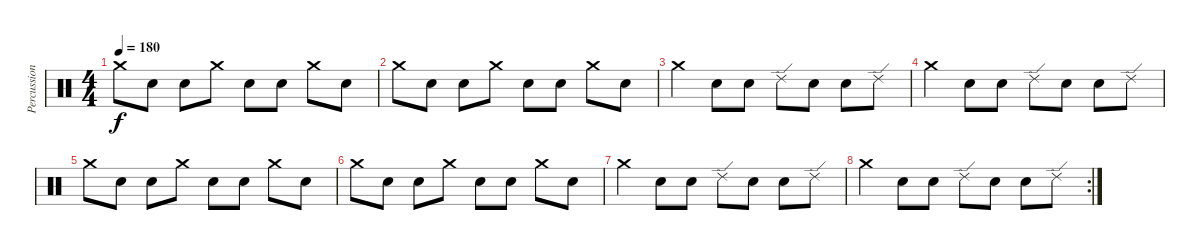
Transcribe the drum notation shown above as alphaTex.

\track ("Percussion" "Percussion") {instrument percussion}
\staff {score}
\articulation defaults
\ts (4 4)
\tempo 180
\clef neutral
\ks c "Crash medium (hit)".8{dy f} "Snare (hit) 2".8 "Snare (hit) 2".8 "Crash medium (hit)".8 "Snare (hit) 2".8 "Snare (hit) 2".8 "Crash medium (hit)".8 "Snare (hit) 2".8
|
"Crash medium (hit)".8 "Snare (hit) 2".8 "Snare (hit) 2".8 "Crash medium (hit)".8 "Snare (hit) 2".8 "Snare (hit) 2".8 "Crash medium (hit)".8 "Snare (hit) 2".8 |
"Crash medium (hit)".4 "Snare (hit) 2".8 "Snare (hit) 2".8 "Ride (edge) 2".8 "Snare (hit) 2".8 "Snare (hit) 2".8 "Ride (edge) 2".8 |
"Crash medium (hit)".4 "Snare (hit) 2".8 "Snare (hit) 2".8 "Ride (edge) 2".8 "Snare (hit) 2".8 "Snare (hit) 2".8 "Ride (edge) 2".8 |
"Crash medium (hit)".8 "Snare (hit) 2".8 "Snare (hit) 2".8 "Crash medium (hit)".8 "Snare (hit) 2".8 "Snare (hit) 2".8 "Crash medium (hit)".8 "Snare (hit) 2".8 |
"Crash medium (hit)".8 "Snare (hit) 2".8 "Snare (hit) 2".8 "Crash medium (hit)".8 "Snare (hit) 2".8 "Snare (hit) 2".8 "Crash medium (hit)".8 "Snare (hit) 2".8 |
"Crash medium (hit)".4 "Snare (hit) 2".8 "Snare (hit) 2".8 "Ride (edge) 2".8 "Snare (hit) 2".8 "Snare (hit) 2".8 "Ride (edge) 2".8 |
\rc 2 "Crash medium (hit)".4 "Snare (hit) 2".8 "Snare (hit) 2".8 "Ride (edge) 2".8 "Snare (hit) 2".8 "Snare (hit) 2".8 "Ride (edge) 2".8
